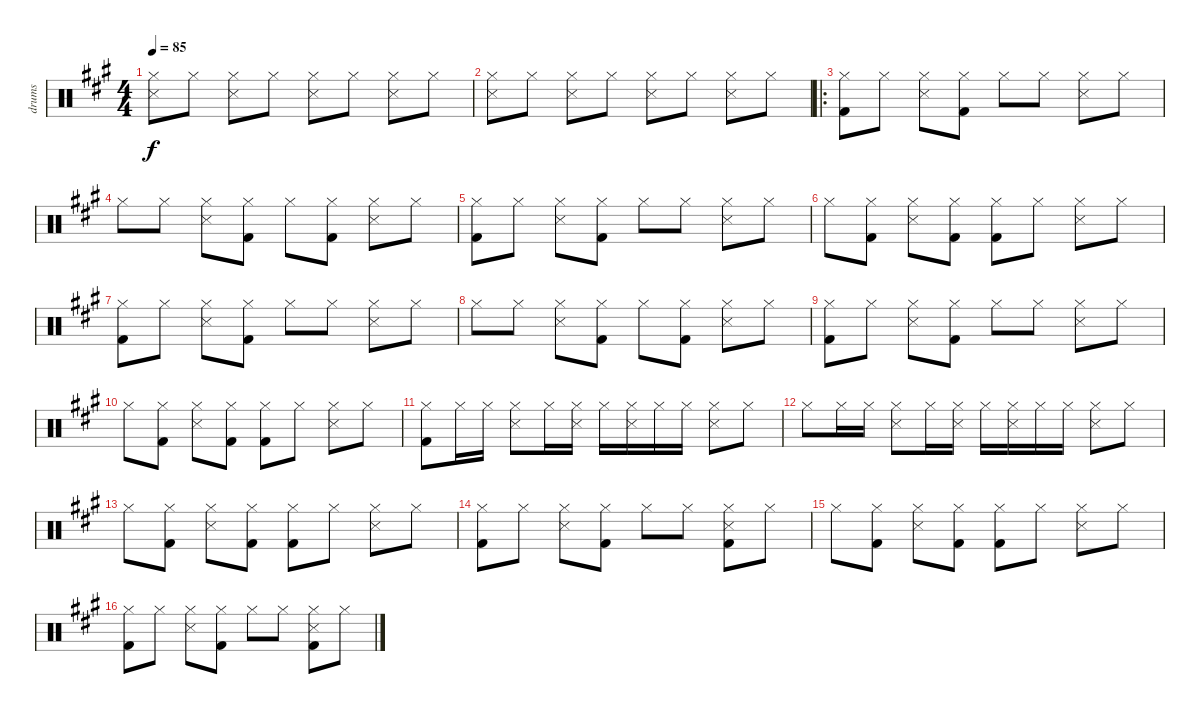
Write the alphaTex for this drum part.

\track ("drums" "drums") {instrument percussion}
\staff {score}
\articulation defaults
\ts (4 4)
\tempo 85
\clef neutral
\ks a
("Hi-Hat (closed)" "Snare (side stick) 3").8{dy f} "Hi-Hat (closed)".8 ("Hi-Hat (closed)" "Snare (side stick) 3").8 "Hi-Hat (closed)".8 ("Hi-Hat (closed)" "Snare (side stick) 3").8 "Hi-Hat (closed)".8 ("Hi-Hat (closed)" "Snare (side stick) 3").8 "Hi-Hat (closed)".8 |
("Hi-Hat (closed)" "Snare (side stick) 3").8 "Hi-Hat (closed)".8 ("Hi-Hat (closed)" "Snare (side stick) 3").8 "Hi-Hat (closed)".8 ("Hi-Hat (closed)" "Snare (side stick) 3").8 "Hi-Hat (closed)".8 ("Hi-Hat (closed)" "Snare (side stick) 3").8 "Hi-Hat (closed)".8 |
\ro
("Hi-Hat (closed)" "Kick (hit) 2").8 "Hi-Hat (closed)".8 ("Hi-Hat (closed)" "Snare (side stick) 3").8 ("Hi-Hat (closed)" "Kick (hit) 2").8 "Hi-Hat (closed)".8 "Hi-Hat (closed)".8 ("Hi-Hat (closed)" "Snare (side stick) 3").8 "Hi-Hat (closed)".8 |
"Hi-Hat (closed)".8 "Hi-Hat (closed)".8 ("Hi-Hat (closed)" "Snare (side stick) 3").8 ("Hi-Hat (closed)" "Kick (hit) 2").8 "Hi-Hat (closed)".8 ("Hi-Hat (closed)" "Kick (hit) 2").8 ("Hi-Hat (closed)" "Snare (side stick) 3").8 "Hi-Hat (closed)".8 |
("Hi-Hat (closed)" "Kick (hit) 2").8 "Hi-Hat (closed)".8 ("Hi-Hat (closed)" "Snare (side stick) 3").8 ("Hi-Hat (closed)" "Kick (hit) 2").8 "Hi-Hat (closed)".8 "Hi-Hat (closed)".8 ("Hi-Hat (closed)" "Snare (side stick) 3").8 "Hi-Hat (closed)".8 |
"Hi-Hat (closed)".8 ("Hi-Hat (closed)" "Kick (hit) 2").8 ("Hi-Hat (closed)" "Snare (side stick) 3").8 ("Hi-Hat (closed)" "Kick (hit) 2").8 ("Hi-Hat (closed)" "Kick (hit) 2").8 "Hi-Hat (closed)".8 ("Hi-Hat (closed)" "Snare (side stick) 3").8 "Hi-Hat (closed)".8 |
("Hi-Hat (closed)" "Kick (hit) 2").8 "Hi-Hat (closed)".8 ("Hi-Hat (closed)" "Snare (side stick) 3").8 ("Hi-Hat (closed)" "Kick (hit) 2").8 "Hi-Hat (closed)".8 "Hi-Hat (closed)".8 ("Hi-Hat (closed)" "Snare (side stick) 3").8 "Hi-Hat (closed)".8 |
"Hi-Hat (closed)".8 "Hi-Hat (closed)".8 ("Hi-Hat (closed)" "Snare (side stick) 3").8 ("Hi-Hat (closed)" "Kick (hit) 2").8 "Hi-Hat (closed)".8 ("Hi-Hat (closed)" "Kick (hit) 2").8 ("Hi-Hat (closed)" "Snare (side stick) 3").8 "Hi-Hat (closed)".8 |
("Hi-Hat (closed)" "Kick (hit) 2").8 "Hi-Hat (closed)".8 ("Hi-Hat (closed)" "Snare (side stick) 3").8 ("Hi-Hat (closed)" "Kick (hit) 2").8 "Hi-Hat (closed)".8 "Hi-Hat (closed)".8 ("Hi-Hat (closed)" "Snare (side stick) 3").8 "Hi-Hat (closed)".8 |
"Hi-Hat (closed)".8 ("Hi-Hat (closed)" "Kick (hit) 2").8 ("Hi-Hat (closed)" "Snare (side stick) 3").8 ("Hi-Hat (closed)" "Kick (hit) 2").8 ("Hi-Hat (closed)" "Kick (hit) 2").8 "Hi-Hat (closed)".8 ("Hi-Hat (closed)" "Snare (side stick) 3").8 "Hi-Hat (closed)".8 |
("Hi-Hat (closed)" "Kick (hit) 2").8 "Hi-Hat (closed)".16 "Hi-Hat (closed)".16 ("Hi-Hat (closed)" "Snare (side stick) 3").8 "Hi-Hat (closed)".16 ("Hi-Hat (closed)" "Snare (side stick) 3").16 "Hi-Hat (closed)".16 ("Hi-Hat (closed)" "Snare (side stick) 3").16 "Hi-Hat (closed)".16 "Hi-Hat (closed)".16 ("Hi-Hat (closed)" "Snare (side stick) 3").8 "Hi-Hat (closed)".8 |
"Hi-Hat (closed)".8 "Hi-Hat (closed)".16 "Hi-Hat (closed)".16 ("Hi-Hat (closed)" "Snare (side stick) 3").8 "Hi-Hat (closed)".16 ("Hi-Hat (closed)" "Snare (side stick) 3").16 "Hi-Hat (closed)".16 ("Hi-Hat (closed)" "Snare (side stick) 3").16 "Hi-Hat (closed)".16 "Hi-Hat (closed)".16 ("Hi-Hat (closed)" "Snare (side stick) 3").8 "Hi-Hat (closed)".8 |
"Hi-Hat (closed)".8 ("Hi-Hat (closed)" "Kick (hit) 2").8 ("Hi-Hat (closed)" "Snare (side stick) 3").8 ("Hi-Hat (closed)" "Kick (hit) 2").8 ("Hi-Hat (closed)" "Kick (hit) 2").8 "Hi-Hat (closed)".8 ("Hi-Hat (closed)" "Snare (side stick) 3").8 "Hi-Hat (closed)".8 |
("Hi-Hat (closed)" "Kick (hit) 2").8 "Hi-Hat (closed)".8 ("Hi-Hat (closed)" "Snare (side stick) 3").8 ("Hi-Hat (closed)" "Kick (hit) 2").8 "Hi-Hat (closed)".8 "Hi-Hat (closed)".8 ("Hi-Hat (closed)" "Snare (side stick) 3" "Kick (hit) 2").8 "Hi-Hat (closed)".8 |
"Hi-Hat (closed)".8 ("Hi-Hat (closed)" "Kick (hit) 2").8 ("Hi-Hat (closed)" "Snare (side stick) 3").8 ("Hi-Hat (closed)" "Kick (hit) 2").8 ("Hi-Hat (closed)" "Kick (hit) 2").8 "Hi-Hat (closed)".8 ("Hi-Hat (closed)" "Snare (side stick) 3").8 "Hi-Hat (closed)".8 |
("Hi-Hat (closed)" "Kick (hit) 2").8 "Hi-Hat (closed)".8 ("Hi-Hat (closed)" "Snare (side stick) 3").8 ("Hi-Hat (closed)" "Kick (hit) 2").8 "Hi-Hat (closed)".8 "Hi-Hat (closed)".8 ("Hi-Hat (closed)" "Snare (side stick) 3" "Kick (hit) 2").8 "Hi-Hat (closed)".8
